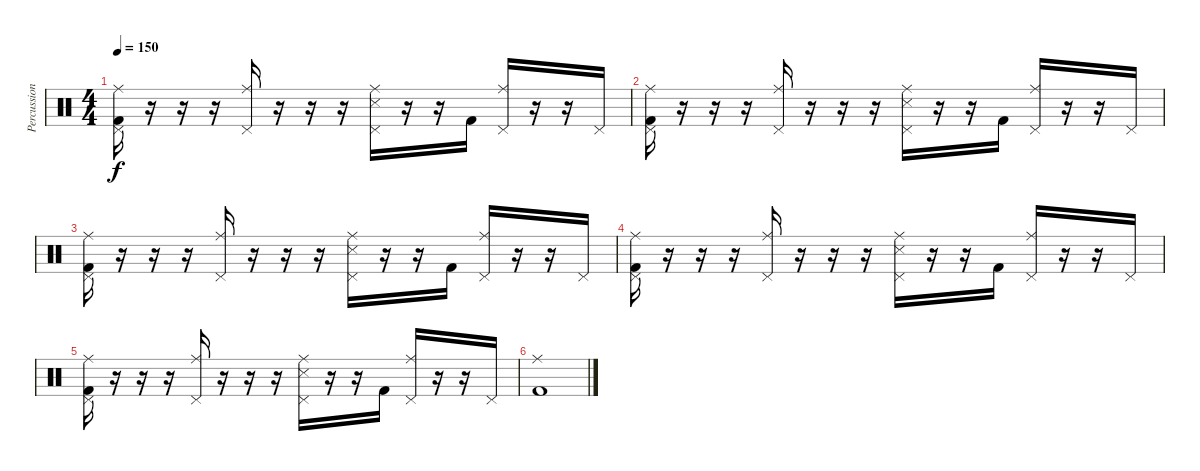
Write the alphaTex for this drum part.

\track ("Percussion" "Percussion") {instrument percussion}
\staff {score}
\articulation defaults
\ts (4 4)
\tempo 150
\clef neutral
\ks c
("Ride (middle)" "Pedal Hi-Hat (hit)" "Kick (hit) 2").16{dy f} r.16 r.16 r.16 ("Ride (middle)" "Pedal Hi-Hat (hit)").16 r.16 r.16 r.16 ("Ride (middle)" "Pedal Hi-Hat (hit)" "Snare (side stick) 3").16 r.16 r.16 "Kick (hit) 2".16 ("Ride (middle)" "Pedal Hi-Hat (hit)").16 r.16 r.16 "Pedal Hi-Hat (hit)".16 |
("Ride (middle)" "Pedal Hi-Hat (hit)" "Kick (hit) 2").16 r.16 r.16 r.16 ("Ride (middle)" "Pedal Hi-Hat (hit)").16 r.16 r.16 r.16 ("Ride (middle)" "Pedal Hi-Hat (hit)" "Snare (side stick) 3").16 r.16 r.16 "Kick (hit) 2".16 ("Ride (middle)" "Pedal Hi-Hat (hit)").16 r.16 r.16 "Pedal Hi-Hat (hit)".16 |
("Ride (middle)" "Pedal Hi-Hat (hit)" "Kick (hit) 2").16 r.16 r.16 r.16 ("Ride (middle)" "Pedal Hi-Hat (hit)").16 r.16 r.16 r.16 ("Ride (middle)" "Pedal Hi-Hat (hit)" "Snare (side stick) 3").16 r.16 r.16 "Kick (hit) 2".16 ("Ride (middle)" "Pedal Hi-Hat (hit)").16 r.16 r.16 "Pedal Hi-Hat (hit)".16 |
("Ride (middle)" "Pedal Hi-Hat (hit)" "Kick (hit) 2").16 r.16 r.16 r.16 ("Ride (middle)" "Pedal Hi-Hat (hit)").16 r.16 r.16 r.16 ("Ride (middle)" "Pedal Hi-Hat (hit)" "Snare (side stick) 3").16 r.16 r.16 "Kick (hit) 2".16 ("Ride (middle)" "Pedal Hi-Hat (hit)").16 r.16 r.16 "Pedal Hi-Hat (hit)".16 |
("Ride (middle)" "Pedal Hi-Hat (hit)" "Kick (hit) 2").16 r.16 r.16 r.16 ("Ride (middle)" "Pedal Hi-Hat (hit)").16 r.16 r.16 r.16 ("Ride (middle)" "Pedal Hi-Hat (hit)" "Snare (side stick) 3").16 r.16 r.16 "Kick (hit) 2".16 ("Ride (middle)" "Pedal Hi-Hat (hit)").16 r.16 r.16 "Pedal Hi-Hat (hit)".16 |
("Ride (middle)" "Kick (hit) 2").1
